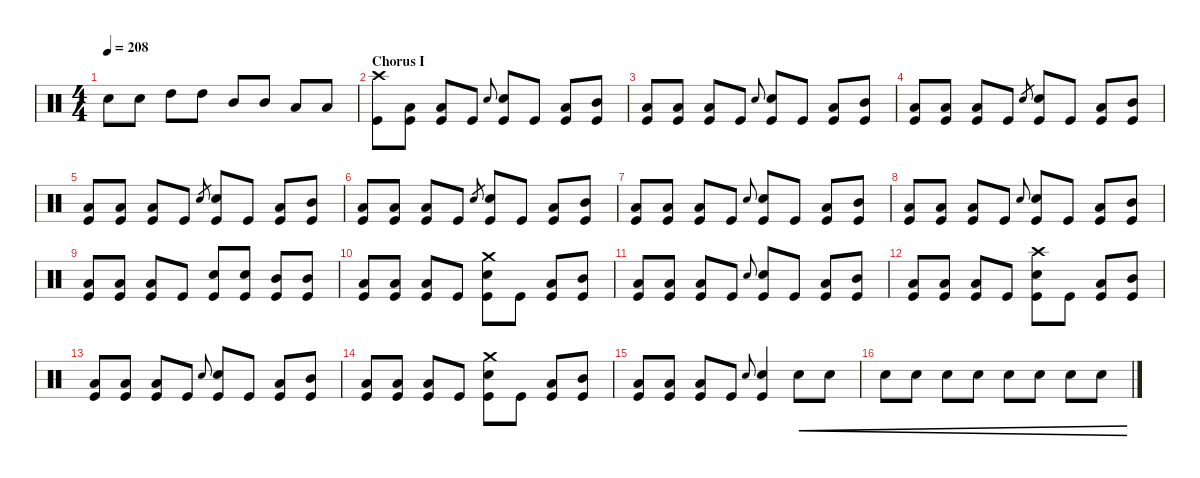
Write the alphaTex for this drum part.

\defaultSystemsLayout 4
\hideDynamics
\bracketExtendMode nobrackets
\singleTrackTrackNamePolicy hidden
\multiTrackTrackNamePolicy hidden
\otherSystemsTrackNameOrientation horizontal
\track ("Drums" "drm.") {multiBarRest instrument percussion}
\staff {score}
\articulation defaults
\ts (4 4)
\tempo 208
\clef neutral
\ks c "Snare (hit) 2".8{dy f beam Down} "Snare (hit) 2".8{beam Down} "High Tom (hit)".8{dy ff beam Down} "High Tom (hit)".8{beam Down} "Mid Tom (hit)".8{beam Up} "Mid Tom (hit)".8{beam Up} "Low Tom (hit)".8{beam Up} "Low Tom (hit)".8{beam Up}
|
\section ("" "Chorus I")
("Kick (hit)" "Crash high (hit)").8{dy f beam Down} ("Kick (hit)" "Low Tom (hit)").8{beam Down} ("Kick (hit)" "Low Tom (hit)").8{beam Up} "Kick (hit)".8{beam Up} "Snare (hit) 2".8{gr onbeat beam Up} ("Kick (hit)" "Snare (hit) 2").8{beam Up} "Kick (hit)".8{beam Up} ("Kick (hit)" "Low Tom (hit)").8{beam Up} ("Kick (hit)" "Mid Tom (hit)").8{beam Up} |
("Kick (hit)" "Low Tom (hit)").8{beam Up} ("Kick (hit)" "Low Tom (hit)").8{beam Up} ("Kick (hit)" "Low Tom (hit)").8{beam Up} "Kick (hit)".8{beam Up} "Snare (hit) 2".8{gr onbeat beam Up} ("Kick (hit)" "Snare (hit) 2").8{beam Up} "Kick (hit)".8{beam Up} ("Kick (hit)" "Low Tom (hit)").8{beam Up} ("Kick (hit)" "Mid Tom (hit)").8{beam Up} |
("Kick (hit)" "Low Tom (hit)").8{beam Up} ("Kick (hit)" "Low Tom (hit)").8{beam Up} ("Kick (hit)" "Low Tom (hit)").8{beam Up} "Kick (hit)".8{beam Up} "Snare (hit) 2".8{gr beam Up} ("Kick (hit)" "Snare (hit) 2").8{beam Up} "Kick (hit)".8{beam Up} ("Kick (hit)" "Low Tom (hit)").8{beam Up} ("Kick (hit)" "Mid Tom (hit)").8{beam Up} |
("Kick (hit)" "Low Tom (hit)").8{beam Up} ("Kick (hit)" "Low Tom (hit)").8{beam Up} ("Kick (hit)" "Low Tom (hit)").8{beam Up} "Kick (hit)".8{beam Up} "Snare (hit) 2".8{gr beam Up} ("Kick (hit)" "Snare (hit) 2").8{beam Up} "Kick (hit)".8{beam Up} ("Kick (hit)" "Low Tom (hit)").8{beam Up} ("Kick (hit)" "Mid Tom (hit)").8{beam Up} |
("Kick (hit)" "Low Tom (hit)").8{beam Up} ("Kick (hit)" "Low Tom (hit)").8{beam Up} ("Kick (hit)" "Low Tom (hit)").8{beam Up} "Kick (hit)".8{beam Up} "Snare (hit) 2".8{gr beam Up} ("Kick (hit)" "Snare (hit) 2").8{beam Up} "Kick (hit)".8{beam Up} ("Kick (hit)" "Low Tom (hit)").8{beam Up} ("Kick (hit)" "Mid Tom (hit)").8{beam Up} |
("Kick (hit)" "Low Tom (hit)").8{beam Up} ("Kick (hit)" "Low Tom (hit)").8{beam Up} ("Kick (hit)" "Low Tom (hit)").8{beam Up} "Kick (hit)".8{beam Up} "Snare (hit) 2".8{gr onbeat beam Up} ("Kick (hit)" "Snare (hit) 2").8{beam Up} "Kick (hit)".8{beam Up} ("Kick (hit)" "Low Tom (hit)").8{beam Up} ("Kick (hit)" "Mid Tom (hit)").8{beam Up} |
("Kick (hit)" "Low Tom (hit)").8{beam Up} ("Kick (hit)" "Low Tom (hit)").8{beam Up} ("Kick (hit)" "Low Tom (hit)").8{beam Up} "Kick (hit)".8{beam Up} "Snare (hit) 2".8{gr onbeat beam Up} ("Kick (hit)" "Snare (hit) 2").8{beam Up} "Kick (hit)".8{beam Up} ("Kick (hit)" "Low Tom (hit)").8{beam Up} ("Kick (hit)" "Mid Tom (hit)").8{beam Up} |
("Kick (hit)" "Low Tom (hit)").8{beam Up} ("Kick (hit)" "Low Tom (hit)").8{beam Up} ("Kick (hit)" "Low Tom (hit)").8{beam Up} "Kick (hit)".8{beam Up} ("Kick (hit)" "Snare (hit) 2").8{beam Up} ("Kick (hit)" "Snare (hit) 2").8{beam Up} ("Kick (hit)" "Mid Tom (hit)").8{beam Up} ("Kick (hit)" "Mid Tom (hit)").8{beam Up} |
("Kick (hit)" "Low Tom (hit)").8{beam Up} ("Kick (hit)" "Low Tom (hit)").8{beam Up} ("Kick (hit)" "Low Tom (hit)").8{beam Up} "Kick (hit)".8{beam Up} ("Kick (hit)" "Snare (hit) 2" "Crash medium (hit)").8{beam Down} "Kick (hit)".8{beam Down} ("Kick (hit)" "Low Tom (hit)").8{beam Up} ("Kick (hit)" "Mid Tom (hit)").8{beam Up} |
("Kick (hit)" "Low Tom (hit)").8{beam Up} ("Kick (hit)" "Low Tom (hit)").8{beam Up} ("Kick (hit)" "Low Tom (hit)").8{beam Up} "Kick (hit)".8{beam Up} "Snare (hit) 2".8{gr onbeat beam Up} ("Kick (hit)" "Snare (hit) 2").8{beam Up} "Kick (hit)".8{beam Up} ("Kick (hit)" "Low Tom (hit)").8{beam Up} ("Kick (hit)" "Mid Tom (hit)").8{beam Up} |
("Kick (hit)" "Low Tom (hit)").8{beam Up} ("Kick (hit)" "Low Tom (hit)").8{beam Up} ("Kick (hit)" "Low Tom (hit)").8{beam Up} "Kick (hit)".8{beam Up} ("Kick (hit)" "Snare (hit) 2" "Crash high (hit)").8{beam Down} "Kick (hit)".8{beam Down} ("Kick (hit)" "Low Tom (hit)").8{beam Up} ("Kick (hit)" "Mid Tom (hit)").8{beam Up} |
("Kick (hit)" "Low Tom (hit)").8{beam Up} ("Kick (hit)" "Low Tom (hit)").8{beam Up} ("Kick (hit)" "Low Tom (hit)").8{beam Up} "Kick (hit)".8{beam Up} "Snare (hit) 2".8{gr onbeat beam Up} ("Kick (hit)" "Snare (hit) 2").8{beam Up} "Kick (hit)".8{beam Up} ("Kick (hit)" "Low Tom (hit)").8{beam Up} ("Kick (hit)" "Mid Tom (hit)").8{beam Up} |
("Kick (hit)" "Low Tom (hit)").8{beam Up} ("Kick (hit)" "Low Tom (hit)").8{beam Up} ("Kick (hit)" "Low Tom (hit)").8{beam Up} "Kick (hit)".8{beam Up} ("Kick (hit)" "Snare (hit) 2" "Crash medium (hit)").8{beam Down} "Kick (hit)".8{beam Down} ("Kick (hit)" "Low Tom (hit)").8{beam Up} ("Kick (hit)" "Mid Tom (hit)").8{beam Up} |
("Kick (hit)" "Low Tom (hit)").8{beam Up} ("Kick (hit)" "Low Tom (hit)").8{beam Up} ("Kick (hit)" "Low Tom (hit)").8{beam Up} "Kick (hit)".8{beam Up} "Snare (hit) 2".8{gr onbeat beam Up} ("Kick (hit)" "Snare (hit) 2").4{beam Up} "Snare (hit) 2".8{cre dy p beam Down} "Snare (hit) 2".8{cre beam Down} |
"Snare (hit) 2".8{cre dy mp beam Down} "Snare (hit) 2".8{cre beam Down} "Snare (hit) 2".8{cre beam Down} "Snare (hit) 2".8{cre beam Down} "Snare (hit) 2".8{cre dy mf beam Down} "Snare (hit) 2".8{cre beam Down} "Snare (hit) 2".8{cre beam Down} "Snare (hit) 2".8{cre beam Down}
